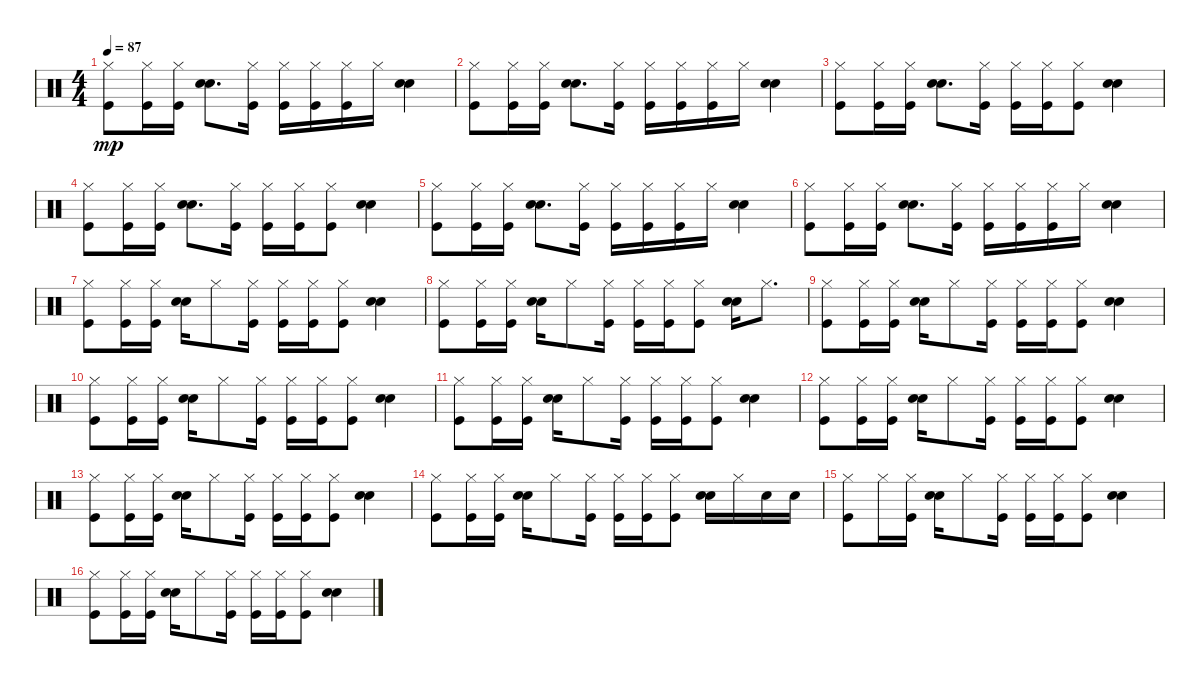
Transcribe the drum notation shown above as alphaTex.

\track "" {instrument percussion}
\staff {score}
\articulation defaults
\ts (4 4)
\tempo 87
\clef neutral
\ks c
("Kick (hit)" "Hi-Hat (closed)").8{dy mp} ("Kick (hit)" "Hi-Hat (closed)").16 ("Kick (hit)" "Hi-Hat (closed)").16 ("Electric Snare (hit)" "Hand Clap (hit)").8{d} ("Kick (hit)" "Hi-Hat (closed)").16 ("Kick (hit)" "Hi-Hat (closed)").16 ("Kick (hit)" "Hi-Hat (closed)").16 ("Hi-Hat (closed)" "Kick (hit)").16 "Hi-Hat (closed)".16 ("Electric Snare (hit)" "Hand Clap (hit)").4 |
("Kick (hit)" "Hi-Hat (closed)").8 ("Kick (hit)" "Hi-Hat (closed)").16 ("Kick (hit)" "Hi-Hat (closed)").16 ("Electric Snare (hit)" "Hand Clap (hit)").8{d} ("Kick (hit)" "Hi-Hat (closed)").16 ("Kick (hit)" "Hi-Hat (closed)").16 ("Kick (hit)" "Hi-Hat (closed)").16 ("Hi-Hat (closed)" "Kick (hit)").16 "Hi-Hat (closed)".16 ("Electric Snare (hit)" "Hand Clap (hit)").4 |
("Kick (hit)" "Hi-Hat (closed)").8 ("Kick (hit)" "Hi-Hat (closed)").16 ("Kick (hit)" "Hi-Hat (closed)").16 ("Electric Snare (hit)" "Hand Clap (hit)").8{d} ("Kick (hit)" "Hi-Hat (closed)").16 ("Kick (hit)" "Hi-Hat (closed)").16 ("Kick (hit)" "Hi-Hat (closed)").16 ("Kick (hit)" "Hi-Hat (closed)").8 ("Electric Snare (hit)" "Hand Clap (hit)").4 |
("Kick (hit)" "Hi-Hat (closed)").8 ("Kick (hit)" "Hi-Hat (closed)").16 ("Kick (hit)" "Hi-Hat (closed)").16 ("Electric Snare (hit)" "Hand Clap (hit)").8{d} ("Kick (hit)" "Hi-Hat (closed)").16 ("Kick (hit)" "Hi-Hat (closed)").16 ("Kick (hit)" "Hi-Hat (closed)").16 ("Kick (hit)" "Hi-Hat (closed)").8 ("Electric Snare (hit)" "Hand Clap (hit)").4 |
("Kick (hit)" "Hi-Hat (closed)").8 ("Kick (hit)" "Hi-Hat (closed)").16 ("Kick (hit)" "Hi-Hat (closed)").16 ("Electric Snare (hit)" "Hand Clap (hit)").8{d} ("Kick (hit)" "Hi-Hat (closed)").16 ("Kick (hit)" "Hi-Hat (closed)").16 ("Kick (hit)" "Hi-Hat (closed)").16 ("Hi-Hat (closed)" "Kick (hit)").16 "Hi-Hat (closed)".16 ("Electric Snare (hit)" "Hand Clap (hit)").4 |
("Kick (hit)" "Hi-Hat (closed)").8 ("Kick (hit)" "Hi-Hat (closed)").16 ("Kick (hit)" "Hi-Hat (closed)").16 ("Electric Snare (hit)" "Hand Clap (hit)").8{d} ("Kick (hit)" "Hi-Hat (closed)").16 ("Kick (hit)" "Hi-Hat (closed)").16 ("Kick (hit)" "Hi-Hat (closed)").16 ("Hi-Hat (closed)" "Kick (hit)").16 "Hi-Hat (closed)".16 ("Electric Snare (hit)" "Hand Clap (hit)").4 |
("Kick (hit)" "Hi-Hat (closed)").8 ("Kick (hit)" "Hi-Hat (closed)").16 ("Kick (hit)" "Hi-Hat (closed)").16 ("Hand Clap (hit)" "Electric Snare (hit)").16 "Hi-Hat (closed)".8 ("Kick (hit)" "Hi-Hat (closed)").16 ("Kick (hit)" "Hi-Hat (closed)").16 ("Kick (hit)" "Hi-Hat (closed)").16 ("Kick (hit)" "Hi-Hat (closed)").8 ("Electric Snare (hit)" "Hand Clap (hit)").4 |
("Kick (hit)" "Hi-Hat (closed)").8 ("Kick (hit)" "Hi-Hat (closed)").16 ("Kick (hit)" "Hi-Hat (closed)").16 ("Hand Clap (hit)" "Electric Snare (hit)").16 "Hi-Hat (closed)".8 ("Kick (hit)" "Hi-Hat (closed)").16 ("Kick (hit)" "Hi-Hat (closed)").16 ("Kick (hit)" "Hi-Hat (closed)").16 ("Kick (hit)" "Hi-Hat (closed)").8 ("Hand Clap (hit)" "Electric Snare (hit)").16 "Hi-Hat (closed)".8{d} |
("Kick (hit)" "Hi-Hat (closed)").8 ("Kick (hit)" "Hi-Hat (closed)").16 ("Kick (hit)" "Hi-Hat (closed)").16 ("Hand Clap (hit)" "Electric Snare (hit)").16 "Hi-Hat (closed)".8 ("Kick (hit)" "Hi-Hat (closed)").16 ("Kick (hit)" "Hi-Hat (closed)").16 ("Kick (hit)" "Hi-Hat (closed)").16 ("Kick (hit)" "Hi-Hat (closed)").8 ("Electric Snare (hit)" "Hand Clap (hit)").4 |
("Kick (hit)" "Hi-Hat (closed)").8 ("Kick (hit)" "Hi-Hat (closed)").16 ("Kick (hit)" "Hi-Hat (closed)").16 ("Hand Clap (hit)" "Electric Snare (hit)").16 "Hi-Hat (closed)".8 ("Kick (hit)" "Hi-Hat (closed)").16 ("Kick (hit)" "Hi-Hat (closed)").16 ("Kick (hit)" "Hi-Hat (closed)").16 ("Kick (hit)" "Hi-Hat (closed)").8 ("Electric Snare (hit)" "Hand Clap (hit)").4 |
("Kick (hit)" "Hi-Hat (closed)").8 ("Kick (hit)" "Hi-Hat (closed)").16 ("Kick (hit)" "Hi-Hat (closed)").16 ("Hand Clap (hit)" "Electric Snare (hit)").16 "Hi-Hat (closed)".8 ("Kick (hit)" "Hi-Hat (closed)").16 ("Kick (hit)" "Hi-Hat (closed)").16 ("Kick (hit)" "Hi-Hat (closed)").16 ("Kick (hit)" "Hi-Hat (closed)").8 ("Electric Snare (hit)" "Hand Clap (hit)").4 |
("Kick (hit)" "Hi-Hat (closed)").8 ("Kick (hit)" "Hi-Hat (closed)").16 ("Kick (hit)" "Hi-Hat (closed)").16 ("Hand Clap (hit)" "Electric Snare (hit)").16 "Hi-Hat (closed)".8 ("Kick (hit)" "Hi-Hat (closed)").16 ("Kick (hit)" "Hi-Hat (closed)").16 ("Kick (hit)" "Hi-Hat (closed)").16 ("Kick (hit)" "Hi-Hat (closed)").8 ("Electric Snare (hit)" "Hand Clap (hit)").4 |
("Kick (hit)" "Hi-Hat (closed)").8 ("Kick (hit)" "Hi-Hat (closed)").16 ("Kick (hit)" "Hi-Hat (closed)").16 ("Hand Clap (hit)" "Electric Snare (hit)").16 "Hi-Hat (closed)".8 ("Kick (hit)" "Hi-Hat (closed)").16 ("Kick (hit)" "Hi-Hat (closed)").16 ("Kick (hit)" "Hi-Hat (closed)").16 ("Kick (hit)" "Hi-Hat (closed)").8 ("Electric Snare (hit)" "Hand Clap (hit)").4 |
("Kick (hit)" "Hi-Hat (closed)").8 ("Kick (hit)" "Hi-Hat (closed)").16 ("Kick (hit)" "Hi-Hat (closed)").16 ("Hand Clap (hit)" "Electric Snare (hit)").16 "Hi-Hat (closed)".8 ("Kick (hit)" "Hi-Hat (closed)").16 ("Kick (hit)" "Hi-Hat (closed)").16 ("Kick (hit)" "Hi-Hat (closed)").16 ("Kick (hit)" "Hi-Hat (closed)").8 ("Hand Clap (hit)" "Electric Snare (hit)").16 "Hi-Hat (closed)".16 "Electric Snare (hit)".16 "Electric Snare (hit)".16 |
("Hi-Hat (closed)" "Kick (hit)").8 "Hi-Hat (closed)".16 ("Kick (hit)" "Hi-Hat (closed)").16 ("Hand Clap (hit)" "Electric Snare (hit)").16 "Hi-Hat (closed)".8 ("Kick (hit)" "Hi-Hat (closed)").16 ("Kick (hit)" "Hi-Hat (closed)").16 ("Kick (hit)" "Hi-Hat (closed)").16 ("Kick (hit)" "Hi-Hat (closed)").8 ("Electric Snare (hit)" "Hand Clap (hit)").4 |
("Kick (hit)" "Hi-Hat (closed)").8 ("Kick (hit)" "Hi-Hat (closed)").16 ("Kick (hit)" "Hi-Hat (closed)").16 ("Hand Clap (hit)" "Electric Snare (hit)").16 "Hi-Hat (closed)".8 ("Kick (hit)" "Hi-Hat (closed)").16 ("Kick (hit)" "Hi-Hat (closed)").16 ("Kick (hit)" "Hi-Hat (closed)").16 ("Kick (hit)" "Hi-Hat (closed)").8 ("Electric Snare (hit)" "Hand Clap (hit)").4
